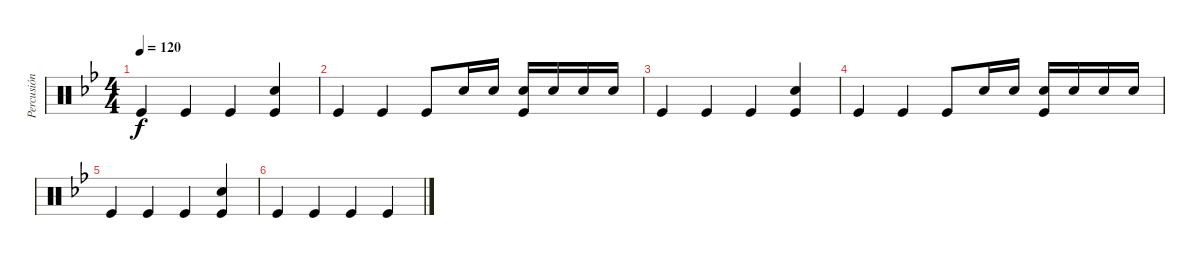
\track ("Percusión" "Percusión") {instrument percussion}
\staff {score}
\articulation defaults
\ts (4 4)
\tempo 120
\clef neutral
\ks bb "Kick (hit)".4{dy f} "Kick (hit)".4 "Kick (hit)".4
("Electric Snare (hit)" "Kick (hit)").4 |
"Kick (hit)".4 "Kick (hit)".4 "Kick (hit)".8 "Electric Snare (hit)".16 "Electric Snare (hit)".16 ("Electric Snare (hit)" "Kick (hit)").16 "Electric Snare (hit)".16 "Electric Snare (hit)".16 "Electric Snare (hit)".16 |
"Kick (hit)".4 "Kick (hit)".4 "Kick (hit)".4 ("Electric Snare (hit)" "Kick (hit)").4 |
"Kick (hit)".4 "Kick (hit)".4 "Kick (hit)".8 "Electric Snare (hit)".16 "Electric Snare (hit)".16 ("Electric Snare (hit)" "Kick (hit)").16 "Electric Snare (hit)".16 "Electric Snare (hit)".16 "Electric Snare (hit)".16 |
"Kick (hit)".4 "Kick (hit)".4 "Kick (hit)".4 ("Electric Snare (hit)" "Kick (hit)").4 |
"Kick (hit)".4 "Kick (hit)".4 "Kick (hit)".4 "Kick (hit)".4
